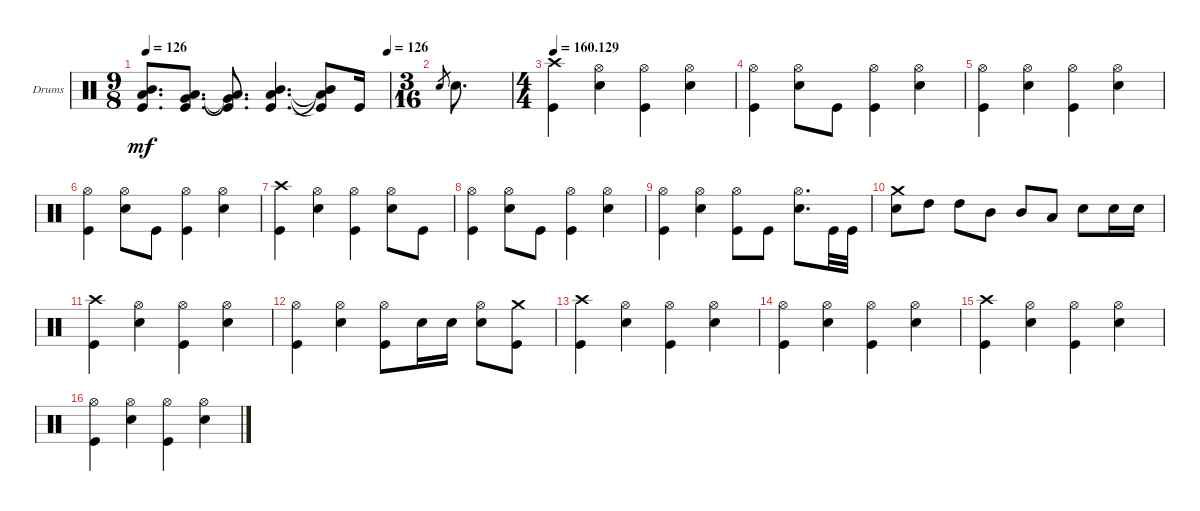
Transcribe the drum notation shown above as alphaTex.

\defaultSystemsLayout 4
\bracketExtendMode groupsimilarinstruments
\firstSystemTrackNameOrientation horizontal
\otherSystemsTrackNameOrientation horizontal
\track ("Drumkit" "Drums") {instrument percussion}
\staff {score}
\articulation defaults
\ts (9 8)
\tempo 126
\tempo (126 0.99375)
\clef neutral
\ks c
("Mid Tom (hit)" "Low Tom (hit)" "Kick (hit)").8{d dy mf} ("Low Tom (hit)" "Very Low Tom (hit)" "Kick (hit)").8{d} ("Kick (hit)"{t} "Very Low Tom (hit)"{t} "Low Tom (hit)"{t}).8{d} ("Low Tom (hit)" "Mid Tom (hit)" "Kick (hit)").4{d} ("Kick (hit)"{t} "Low Tom (hit)"{t} "Mid Tom (hit)"{t}).8 "Kick (hit)".16 |
\ts (3 16)
"Snare (hit) 2".8{gr} "Snare (hit) 2".8{d} |
\ts (4 4)
\tempo
160.129 ("Kick (hit)" "Crash high (hit)").4 ("Hi-Hat (open)" "Snare (hit) 2").4 ("Hi-Hat (open)" "Kick (hit)").4 ("Snare (hit) 2" "Hi-Hat (open)").4 |
("Kick (hit)" "Hi-Hat (open)").4 ("Hi-Hat (open)" "Snare (hit) 2").8 "Kick (hit)".8 ("Kick (hit)" "Hi-Hat (open)").4 ("Snare (hit) 2" "Hi-Hat (open)").4 |
("Kick (hit)" "Hi-Hat (open)").4 ("Snare (hit) 2" "Hi-Hat (open)").4 ("Kick (hit)" "Hi-Hat (open)").4 ("Snare (hit) 2" "Hi-Hat (open)").4 |
("Kick (hit)" "Hi-Hat (open)").4 ("Hi-Hat (open)" "Snare (hit) 2").8 "Kick (hit)".8 ("Kick (hit)" "Hi-Hat (open)").4 ("Snare (hit) 2" "Hi-Hat (open)").4 |
("Kick (hit)" "Crash high (hit)").4 ("Hi-Hat (open)" "Snare (hit) 2").4 ("Hi-Hat (open)" "Kick (hit)").4 ("Snare (hit) 2" "Hi-Hat (open)").8 "Kick (hit)".8 |
("Kick (hit)" "Hi-Hat (open)").4 ("Snare (hit) 2" "Hi-Hat (open)").8 "Kick (hit)".8 ("Kick (hit)" "Hi-Hat (open)").4 ("Snare (hit) 2" "Hi-Hat (open)").4 |
("Kick (hit)" "Hi-Hat (open)").4 ("Snare (hit) 2" "Hi-Hat (open)").4 ("Kick (hit)" "Hi-Hat (open)").8 "Kick (hit)".8 ("Hi-Hat (open)" "Snare (hit) 2").8{d} "Kick (hit)".32 "Kick (hit)".32 |
("Snare (hit) 2" "Crash medium (hit)").8 "High Tom (hit)".8 "High Tom (hit)".8 "Mid Tom (hit)".8 "Mid Tom (hit)".8 "Low Tom (hit)".8 "Snare (hit) 2".8 "Snare (hit) 2".16 "Snare (hit) 2".16 |
("Kick (hit)" "Crash high (hit)").4 ("Hi-Hat (open)" "Snare (hit) 2").4 ("Hi-Hat (open)" "Kick (hit)").4 ("Snare (hit) 2" "Hi-Hat (open)").4 |
("Kick (hit)" "Hi-Hat (open)").4 ("Hi-Hat (open)" "Snare (hit) 2").4 ("Kick (hit)" "Hi-Hat (open)").8 "Snare (hit) 2".16 "Snare (hit) 2".16 ("Snare (hit) 2" "Hi-Hat (open)").8 ("Kick (hit)" "Crash medium (hit)").8 |
("Kick (hit)" "Crash high (hit)").4 ("Snare (hit) 2" "Hi-Hat (open)").4 ("Kick (hit)" "Hi-Hat (open)").4 ("Snare (hit) 2" "Hi-Hat (open)").4 |
("Kick (hit)" "Hi-Hat (open)").4 ("Snare (hit) 2" "Hi-Hat (open)").4 ("Kick (hit)" "Hi-Hat (open)").4 ("Snare (hit) 2" "Hi-Hat (open)").4 |
("Kick (hit)" "Crash high (hit)").4 ("Snare (hit) 2" "Hi-Hat (open)").4 ("Kick (hit)" "Hi-Hat (open)").4 ("Snare (hit) 2" "Hi-Hat (open)").4 |
("Kick (hit)" "Hi-Hat (open)").4 ("Snare (hit) 2" "Hi-Hat (open)").4 ("Kick (hit)" "Hi-Hat (open)").4 ("Snare (hit) 2" "Hi-Hat (open)").4
